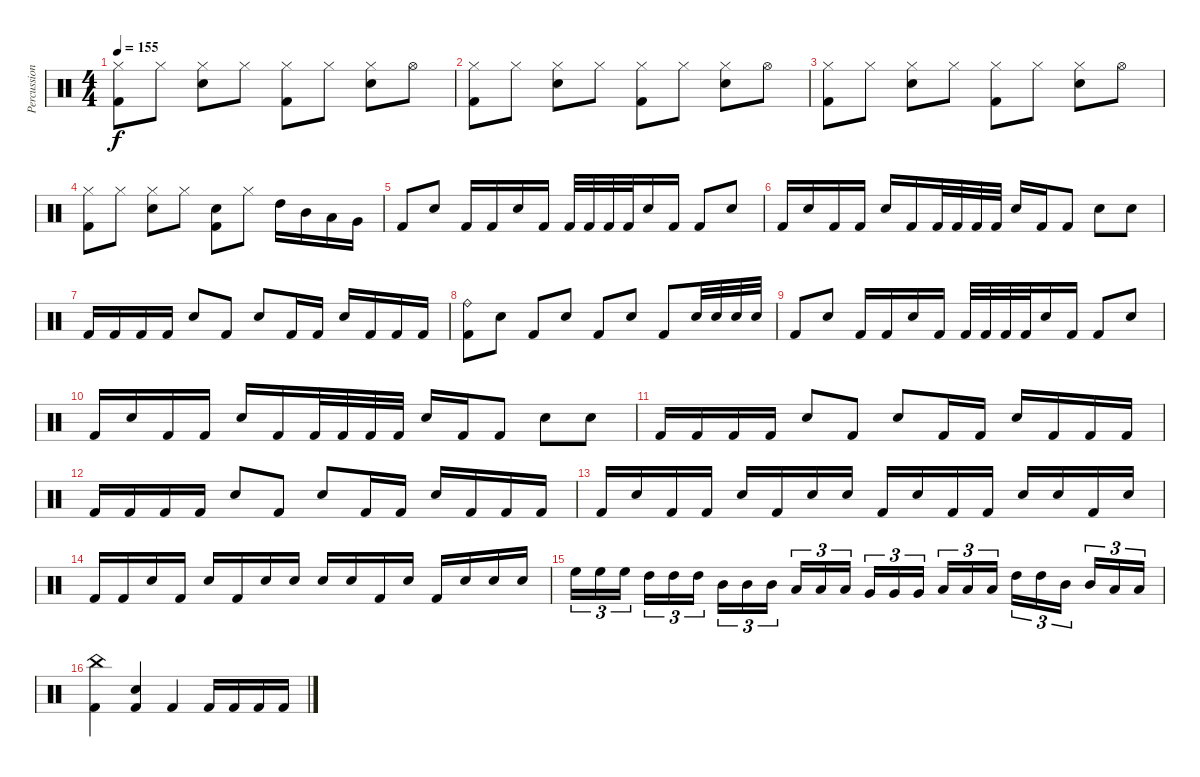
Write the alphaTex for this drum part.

\track ("Percussions" "Percussion") {instrument percussion}
\staff {score}
\articulation defaults
\ts (4 4)
\tempo 155
\clef neutral
\ks c
("Hi-Hat (closed)" "Kick (hit) 2").8{dy f} "Hi-Hat (closed)".8 ("Hi-Hat (closed)" "Electric Snare (hit)").8 "Hi-Hat (closed)".8 ("Hi-Hat (closed)" "Kick (hit) 2").8 "Hi-Hat (closed)".8 ("Hi-Hat (closed)" "Electric Snare (hit)").8 "Hi-Hat (open)".8 |
("Hi-Hat (closed)" "Kick (hit) 2").8 "Hi-Hat (closed)".8 ("Hi-Hat (closed)" "Electric Snare (hit)").8 "Hi-Hat (closed)".8 ("Hi-Hat (closed)" "Kick (hit) 2").8 "Hi-Hat (closed)".8 ("Hi-Hat (closed)" "Electric Snare (hit)").8 "Hi-Hat (open)".8 |
("Hi-Hat (closed)" "Kick (hit) 2").8 "Hi-Hat (closed)".8 ("Hi-Hat (closed)" "Electric Snare (hit)").8 "Hi-Hat (closed)".8 ("Hi-Hat (closed)" "Kick (hit) 2").8 "Hi-Hat (closed)".8 ("Hi-Hat (closed)" "Electric Snare (hit)").8 "Hi-Hat (open)".8 |
("Hi-Hat (closed)" "Kick (hit) 2").8 "Hi-Hat (closed)".8 ("Hi-Hat (closed)" "Electric Snare (hit)").8 "Hi-Hat (closed)".8 ("Electric Snare (hit)" "Kick (hit) 2").8 "Hi-Hat (closed)".8 "High Tom (hit)".16 "Mid Tom (hit)".16 "Low Tom (hit)".16 "Very Low Tom (hit)".16 |
"Kick (hit) 2".8 "Electric Snare (hit)".8 "Kick (hit) 2".16 "Kick (hit) 2".16 "Electric Snare (hit)".16 "Kick (hit) 2".16 "Kick (hit) 2".32 "Kick (hit) 2".32 "Kick (hit) 2".32 "Kick (hit) 2".32 "Electric Snare (hit)".16 "Kick (hit) 2".16 "Kick (hit) 2".8 "Electric Snare (hit)".8 |
"Kick (hit) 2".16 "Electric Snare (hit)".16 "Kick (hit) 2".16 "Kick (hit) 2".16 "Electric Snare (hit)".16 "Kick (hit) 2".16 "Kick (hit) 2".32 "Kick (hit) 2".32 "Kick (hit) 2".32 "Kick (hit) 2".32 "Electric Snare (hit)".16 "Kick (hit) 2".16 "Kick (hit) 2".8 "Electric Snare (hit)".8 "Electric Snare (hit)".8 |
"Kick (hit) 2".16 "Kick (hit) 2".16 "Kick (hit) 2".16 "Kick (hit) 2".16 "Electric Snare (hit)".8 "Kick (hit) 2".8 "Electric Snare (hit)".8 "Kick (hit) 2".16 "Kick (hit) 2".16 "Electric Snare (hit)".16 "Kick (hit) 2".16 "Kick (hit) 2".16 "Kick (hit) 2".16 |
("Ride (bell)" "Kick (hit) 2").8 "Electric Snare (hit)".8 "Kick (hit) 2".8 "Electric Snare (hit)".8 "Kick (hit) 2".8 "Electric Snare (hit)".8 "Kick (hit) 2".8 "Electric Snare (hit)".32 "Electric Snare (hit)".32 "Electric Snare (hit)".32 "Electric Snare (hit)".32 |
"Kick (hit) 2".8 "Electric Snare (hit)".8 "Kick (hit) 2".16 "Kick (hit) 2".16 "Electric Snare (hit)".16 "Kick (hit) 2".16 "Kick (hit) 2".32 "Kick (hit) 2".32 "Kick (hit) 2".32 "Kick (hit) 2".32 "Electric Snare (hit)".16 "Kick (hit) 2".16 "Kick (hit) 2".8 "Electric Snare (hit)".8 |
"Kick (hit) 2".16 "Electric Snare (hit)".16 "Kick (hit) 2".16 "Kick (hit) 2".16 "Electric Snare (hit)".16 "Kick (hit) 2".16 "Kick (hit) 2".32 "Kick (hit) 2".32 "Kick (hit) 2".32 "Kick (hit) 2".32 "Electric Snare (hit)".16 "Kick (hit) 2".16 "Kick (hit) 2".8 "Electric Snare (hit)".8 "Electric Snare (hit)".8 |
"Kick (hit) 2".16 "Kick (hit) 2".16 "Kick (hit) 2".16 "Kick (hit) 2".16 "Electric Snare (hit)".8 "Kick (hit) 2".8 "Electric Snare (hit)".8 "Kick (hit) 2".16 "Kick (hit) 2".16 "Electric Snare (hit)".16 "Kick (hit) 2".16 "Kick (hit) 2".16 "Kick (hit) 2".16 |
"Kick (hit) 2".16 "Kick (hit) 2".16 "Kick (hit) 2".16 "Kick (hit) 2".16 "Electric Snare (hit)".8 "Kick (hit) 2".8 "Electric Snare (hit)".8 "Kick (hit) 2".16 "Kick (hit) 2".16 "Electric Snare (hit)".16 "Kick (hit) 2".16 "Kick (hit) 2".16 "Kick (hit) 2".16 |
"Kick (hit) 2".16 "Electric Snare (hit)".16 "Kick (hit) 2".16 "Kick (hit) 2".16 "Electric Snare (hit)".16 "Kick (hit) 2".16 "Electric Snare (hit)".16 "Electric Snare (hit)".16 "Kick (hit) 2".16 "Electric Snare (hit)".16 "Kick (hit) 2".16 "Kick (hit) 2".16 "Electric Snare (hit)".16 "Electric Snare (hit)".16 "Kick (hit) 2".16 "Electric Snare (hit)".16 |
"Kick (hit) 2".16 "Kick (hit) 2".16 "Electric Snare (hit)".16 "Kick (hit) 2".16 "Electric Snare (hit)".16 "Kick (hit) 2".16 "Electric Snare (hit)".16 "Electric Snare (hit)".16 "Electric Snare (hit)".16 "Electric Snare (hit)".16 "Kick (hit) 2".16 "Electric Snare (hit)".16 "Kick (hit) 2".16 "Electric Snare (hit)".16 "Electric Snare (hit)".16 "Electric Snare (hit)".16 |
"High Floor Tom (hit)".16{tu (3 2)} "High Floor Tom (hit)".16{tu (3 2)} "High Floor Tom (hit)".16{tu (3 2)} "High Tom (hit)".16{tu (3 2)} "High Tom (hit)".16{tu (3 2)} "High Tom (hit)".16{tu (3 2)} "Mid Tom (hit)".16{tu (3 2)} "Mid Tom (hit)".16{tu (3 2)} "Mid Tom (hit)".16{tu (3 2)} "Low Tom (hit)".16{tu (3 2)} "Low Tom (hit)".16{tu (3 2)} "Low Tom (hit)".16{tu (3 2)} "Very Low Tom (hit)".16{tu (3 2)} "Very Low Tom (hit)".16{tu (3 2)} "Very Low Tom (hit)".16{tu (3 2)} "Low Floor Tom (hit)".16{tu (3 2)} "Low Floor Tom (hit)".16{tu (3 2)} "Low Floor Tom (hit)".16{tu (3 2)} "High Tom (hit)".16{tu (3 2)} "High Tom (hit)".16{tu (3 2)} "Mid Tom (hit)".16{tu (3 2)} "Mid Tom (hit)".16{tu (3 2)} "Low Tom (hit)".16{tu (3 2)} "Low Tom (hit)".16{tu (3 2)} |
("China (hit)" "Kick (hit) 2").4 ("Electric Snare (hit)" "Kick (hit) 2").4 "Kick (hit) 2".4 "Kick (hit) 2".16 "Kick (hit) 2".16 "Kick (hit) 2".16 "Kick (hit) 2".16
